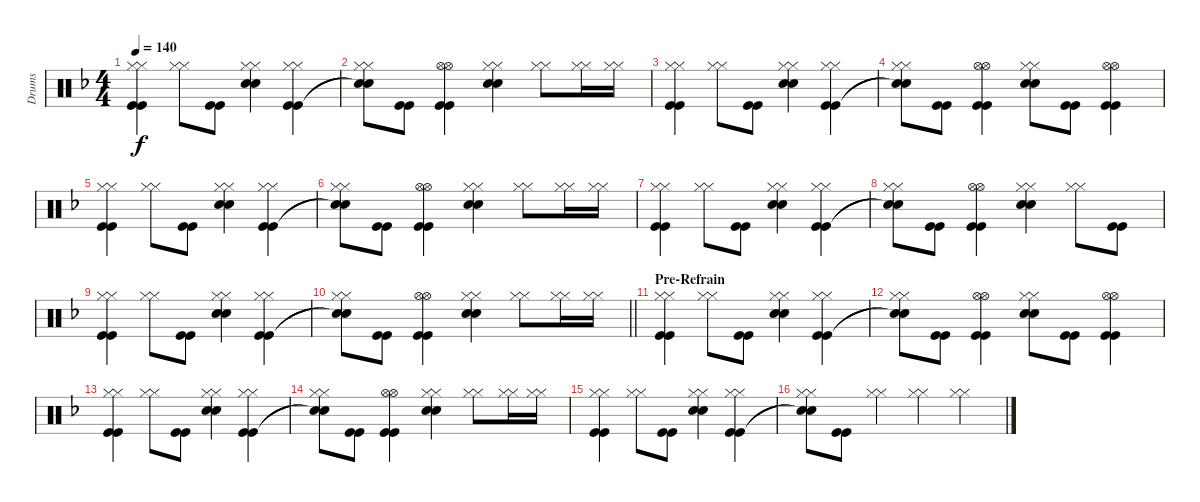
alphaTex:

\track ("Drums" "Drums") {instrument percussion}
\staff {score}
\articulation defaults
\ts (4 4)
\tempo 140
\clef neutral
\ks f
("Hi-Hat (closed)" "Hi-Hat (closed)" "Kick (hit)" "Kick (hit)").4{dy f} ("Hi-Hat (closed)" "Hi-Hat (closed)").8 ("Kick (hit)" "Kick (hit)").8 ("Hi-Hat (closed)" "Hi-Hat (closed)" "Snare (hit) 2" "Snare (hit) 2").4 ("Hi-Hat (closed)" "Hi-Hat (closed)" "Kick (hit)" "Kick (hit)").4 |
("Hi-Hat (closed)" "Hi-Hat (closed)" "Snare (hit)"{t} "Snare (hit)"{t}).8 ("Kick (hit)" "Kick (hit)").8 ("Hi-Hat (open)" "Hi-Hat (open)" "Kick (hit)" "Kick (hit)").4 ("Hi-Hat (closed)" "Hi-Hat (closed)" "Snare (hit) 2" "Snare (hit) 2").4 ("Hi-Hat (closed)" "Hi-Hat (closed)").8 ("Hi-Hat (closed)" "Hi-Hat (closed)").16 ("Hi-Hat (closed)" "Hi-Hat (closed)").16 |
("Hi-Hat (closed)" "Hi-Hat (closed)" "Kick (hit)" "Kick (hit)").4 ("Hi-Hat (closed)" "Hi-Hat (closed)").8 ("Kick (hit)" "Kick (hit)").8 ("Hi-Hat (closed)" "Hi-Hat (closed)" "Snare (hit) 2" "Snare (hit) 2").4 ("Hi-Hat (closed)" "Hi-Hat (closed)" "Kick (hit)" "Kick (hit)").4 |
("Hi-Hat (closed)" "Hi-Hat (closed)" "Snare (hit)"{t} "Snare (hit)"{t}).8 ("Kick (hit)" "Kick (hit)").8 ("Hi-Hat (open)" "Hi-Hat (open)" "Kick (hit)" "Kick (hit)").4 ("Hi-Hat (closed)" "Hi-Hat (closed)" "Snare (hit) 2" "Snare (hit) 2").8 ("Kick (hit)" "Kick (hit)").8 ("Hi-Hat (open)" "Hi-Hat (open)" "Kick (hit)" "Kick (hit)").4 |
("Hi-Hat (closed)" "Hi-Hat (closed)" "Kick (hit)" "Kick (hit)").4 ("Hi-Hat (closed)" "Hi-Hat (closed)").8 ("Kick (hit)" "Kick (hit)").8 ("Hi-Hat (closed)" "Hi-Hat (closed)" "Snare (hit) 2" "Snare (hit) 2").4 ("Hi-Hat (closed)" "Hi-Hat (closed)" "Kick (hit)" "Kick (hit)").4 |
("Hi-Hat (closed)" "Hi-Hat (closed)" "Snare (hit)"{t} "Snare (hit)"{t}).8 ("Kick (hit)" "Kick (hit)").8 ("Hi-Hat (open)" "Hi-Hat (open)" "Kick (hit)" "Kick (hit)").4 ("Hi-Hat (closed)" "Hi-Hat (closed)" "Snare (hit) 2" "Snare (hit) 2").4 ("Hi-Hat (closed)" "Hi-Hat (closed)").8 ("Hi-Hat (closed)" "Hi-Hat (closed)").16 ("Hi-Hat (closed)" "Hi-Hat (closed)").16 |
("Hi-Hat (closed)" "Hi-Hat (closed)" "Kick (hit)" "Kick (hit)").4 ("Hi-Hat (closed)" "Hi-Hat (closed)").8 ("Kick (hit)" "Kick (hit)").8 ("Hi-Hat (closed)" "Hi-Hat (closed)" "Snare (hit) 2" "Snare (hit) 2").4 ("Hi-Hat (closed)" "Hi-Hat (closed)" "Kick (hit)" "Kick (hit)").4 |
("Hi-Hat (closed)" "Hi-Hat (closed)" "Snare (hit)"{t} "Snare (hit)"{t}).8 ("Kick (hit)" "Kick (hit)").8 ("Hi-Hat (open)" "Hi-Hat (open)" "Kick (hit)" "Kick (hit)").4 ("Hi-Hat (closed)" "Hi-Hat (closed)" "Snare (hit) 2" "Snare (hit) 2").4 ("Hi-Hat (closed)" "Hi-Hat (closed)").8 ("Kick (hit)" "Kick (hit)").8 |
("Hi-Hat (closed)" "Hi-Hat (closed)" "Kick (hit)" "Kick (hit)").4 ("Hi-Hat (closed)" "Hi-Hat (closed)").8 ("Kick (hit)" "Kick (hit)").8 ("Hi-Hat (closed)" "Hi-Hat (closed)" "Snare (hit) 2" "Snare (hit) 2").4 ("Hi-Hat (closed)" "Hi-Hat (closed)" "Kick (hit)" "Kick (hit)").4 |
\barLineRight lightlight
("Hi-Hat (closed)" "Hi-Hat (closed)" "Snare (hit)"{t} "Snare (hit)"{t}).8 ("Kick (hit)" "Kick (hit)").8 ("Hi-Hat (open)" "Hi-Hat (open)" "Kick (hit)" "Kick (hit)").4 ("Hi-Hat (closed)" "Hi-Hat (closed)" "Snare (hit) 2" "Snare (hit) 2").4 ("Hi-Hat (closed)" "Hi-Hat (closed)").8 ("Hi-Hat (closed)" "Hi-Hat (closed)").16 ("Hi-Hat (closed)" "Hi-Hat (closed)").16 |
\section ("" "Pre-Refrain")
("Hi-Hat (closed)" "Hi-Hat (closed)" "Kick (hit)" "Kick (hit)").4 ("Hi-Hat (closed)" "Hi-Hat (closed)").8 ("Kick (hit)" "Kick (hit)").8 ("Hi-Hat (closed)" "Hi-Hat (closed)" "Snare (hit) 2" "Snare (hit) 2").4 ("Hi-Hat (closed)" "Hi-Hat (closed)" "Kick (hit)" "Kick (hit)").4 |
("Hi-Hat (closed)" "Hi-Hat (closed)" "Snare (hit)"{t} "Snare (hit)"{t}).8 ("Kick (hit)" "Kick (hit)").8 ("Hi-Hat (open)" "Hi-Hat (open)" "Kick (hit)" "Kick (hit)").4 ("Hi-Hat (closed)" "Hi-Hat (closed)" "Snare (hit) 2" "Snare (hit) 2").8 ("Kick (hit)" "Kick (hit)").8 ("Hi-Hat (open)" "Hi-Hat (open)" "Kick (hit)" "Kick (hit)").4 |
("Hi-Hat (closed)" "Hi-Hat (closed)" "Kick (hit)" "Kick (hit)").4 ("Hi-Hat (closed)" "Hi-Hat (closed)").8 ("Kick (hit)" "Kick (hit)").8 ("Hi-Hat (closed)" "Hi-Hat (closed)" "Snare (hit) 2" "Snare (hit) 2").4 ("Hi-Hat (closed)" "Hi-Hat (closed)" "Kick (hit)" "Kick (hit)").4 |
("Hi-Hat (closed)" "Hi-Hat (closed)" "Snare (hit)"{t} "Snare (hit)"{t}).8 ("Kick (hit)" "Kick (hit)").8 ("Hi-Hat (open)" "Hi-Hat (open)" "Kick (hit)" "Kick (hit)").4 ("Hi-Hat (closed)" "Hi-Hat (closed)" "Snare (hit) 2" "Snare (hit) 2").4 ("Hi-Hat (closed)" "Hi-Hat (closed)").8 ("Hi-Hat (closed)" "Hi-Hat (closed)").16 ("Hi-Hat (closed)" "Hi-Hat (closed)").16 |
("Hi-Hat (closed)" "Hi-Hat (closed)" "Kick (hit)" "Kick (hit)").4 ("Hi-Hat (closed)" "Hi-Hat (closed)").8 ("Kick (hit)" "Kick (hit)").8 ("Hi-Hat (closed)" "Hi-Hat (closed)" "Snare (hit) 2" "Snare (hit) 2").4 ("Hi-Hat (closed)" "Hi-Hat (closed)" "Kick (hit)" "Kick (hit)").4 |
("Hi-Hat (closed)" "Hi-Hat (closed)" "Snare (hit)"{t} "Snare (hit)"{t}).8 ("Kick (hit)" "Kick (hit)").8 ("Hi-Hat (closed)" "Hi-Hat (closed)").4 ("Hi-Hat (closed)" "Hi-Hat (closed)").4 ("Hi-Hat (closed)" "Hi-Hat (closed)").4
